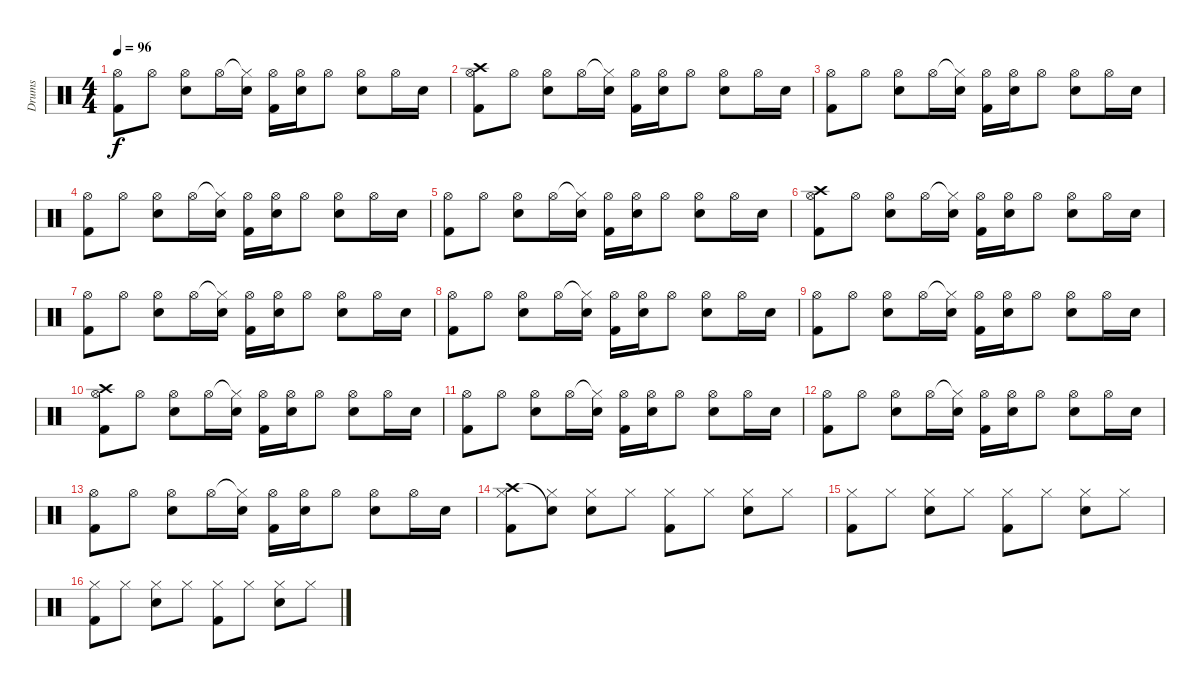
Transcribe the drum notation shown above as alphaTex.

\track ("Drums" "Drums") {instrument percussion}
\staff {score}
\articulation defaults
\ts (4 4)
\tempo 96
\clef neutral
\ks c
("Hi-Hat (open)" "Kick (hit) 2").8{dy f} "Hi-Hat (open)".8 ("Hi-Hat (open)" "Snare (hit) 2").8 "Hi-Hat (open)".16 ("Hi-Hat (closed)"{t} "Snare (hit) 2").16 ("Hi-Hat (open)" "Kick (hit) 2").16 ("Hi-Hat (open)" "Snare (hit) 2").16 "Hi-Hat (open)".8 ("Hi-Hat (open)" "Snare (hit) 2").8 "Hi-Hat (open)".16 "Snare (hit) 2".16 |
("Crash high (hit)" "Hi-Hat (open)" "Kick (hit) 2").8 "Hi-Hat (open)".8 ("Hi-Hat (open)" "Snare (hit) 2").8 "Hi-Hat (open)".16 ("Hi-Hat (closed)"{t} "Snare (hit) 2").16 ("Hi-Hat (open)" "Kick (hit) 2").16 ("Hi-Hat (open)" "Snare (hit) 2").16 "Hi-Hat (open)".8 ("Hi-Hat (open)" "Snare (hit) 2").8 "Hi-Hat (open)".16 "Snare (hit) 2".16 |
("Hi-Hat (open)" "Kick (hit) 2").8 "Hi-Hat (open)".8 ("Hi-Hat (open)" "Snare (hit) 2").8 "Hi-Hat (open)".16 ("Hi-Hat (closed)"{t} "Snare (hit) 2").16 ("Hi-Hat (open)" "Kick (hit) 2").16 ("Hi-Hat (open)" "Snare (hit) 2").16 "Hi-Hat (open)".8 ("Hi-Hat (open)" "Snare (hit) 2").8 "Hi-Hat (open)".16 "Snare (hit) 2".16 |
("Hi-Hat (open)" "Kick (hit) 2").8 "Hi-Hat (open)".8 ("Hi-Hat (open)" "Snare (hit) 2").8 "Hi-Hat (open)".16 ("Hi-Hat (closed)"{t} "Snare (hit) 2").16 ("Hi-Hat (open)" "Kick (hit) 2").16 ("Hi-Hat (open)" "Snare (hit) 2").16 "Hi-Hat (open)".8 ("Hi-Hat (open)" "Snare (hit) 2").8 "Hi-Hat (open)".16 "Snare (hit) 2".16 |
("Hi-Hat (open)" "Kick (hit) 2").8 "Hi-Hat (open)".8 ("Hi-Hat (open)" "Snare (hit) 2").8 "Hi-Hat (open)".16 ("Hi-Hat (closed)"{t} "Snare (hit) 2").16 ("Hi-Hat (open)" "Kick (hit) 2").16 ("Hi-Hat (open)" "Snare (hit) 2").16 "Hi-Hat (open)".8 ("Hi-Hat (open)" "Snare (hit) 2").8 "Hi-Hat (open)".16 "Snare (hit) 2".16 |
("Crash high (hit)" "Hi-Hat (open)" "Kick (hit) 2").8 "Hi-Hat (open)".8 ("Hi-Hat (open)" "Snare (hit) 2").8 "Hi-Hat (open)".16 ("Hi-Hat (closed)"{t} "Snare (hit) 2").16 ("Hi-Hat (open)" "Kick (hit) 2").16 ("Hi-Hat (open)" "Snare (hit) 2").16 "Hi-Hat (open)".8 ("Hi-Hat (open)" "Snare (hit) 2").8 "Hi-Hat (open)".16 "Snare (hit) 2".16 |
("Hi-Hat (open)" "Kick (hit) 2").8 "Hi-Hat (open)".8 ("Hi-Hat (open)" "Snare (hit) 2").8 "Hi-Hat (open)".16 ("Hi-Hat (closed)"{t} "Snare (hit) 2").16 ("Hi-Hat (open)" "Kick (hit) 2").16 ("Hi-Hat (open)" "Snare (hit) 2").16 "Hi-Hat (open)".8 ("Hi-Hat (open)" "Snare (hit) 2").8 "Hi-Hat (open)".16 "Snare (hit) 2".16 |
("Hi-Hat (open)" "Kick (hit) 2").8 "Hi-Hat (open)".8 ("Hi-Hat (open)" "Snare (hit) 2").8 "Hi-Hat (open)".16 ("Hi-Hat (closed)"{t} "Snare (hit) 2").16 ("Hi-Hat (open)" "Kick (hit) 2").16 ("Hi-Hat (open)" "Snare (hit) 2").16 "Hi-Hat (open)".8 ("Hi-Hat (open)" "Snare (hit) 2").8 "Hi-Hat (open)".16 "Snare (hit) 2".16 |
("Hi-Hat (open)" "Kick (hit) 2").8 "Hi-Hat (open)".8 ("Hi-Hat (open)" "Snare (hit) 2").8 "Hi-Hat (open)".16 ("Hi-Hat (closed)"{t} "Snare (hit) 2").16 ("Hi-Hat (open)" "Kick (hit) 2").16 ("Hi-Hat (open)" "Snare (hit) 2").16 "Hi-Hat (open)".8 ("Hi-Hat (open)" "Snare (hit) 2").8 "Hi-Hat (open)".16 "Snare (hit) 2".16 |
("Crash high (hit)" "Hi-Hat (open)" "Kick (hit) 2").8 "Hi-Hat (open)".8 ("Hi-Hat (open)" "Snare (hit) 2").8 "Hi-Hat (open)".16 ("Hi-Hat (closed)"{t} "Snare (hit) 2").16 ("Hi-Hat (open)" "Kick (hit) 2").16 ("Hi-Hat (open)" "Snare (hit) 2").16 "Hi-Hat (open)".8 ("Hi-Hat (open)" "Snare (hit) 2").8 "Hi-Hat (open)".16 "Snare (hit) 2".16 |
("Hi-Hat (open)" "Kick (hit) 2").8 "Hi-Hat (open)".8 ("Hi-Hat (open)" "Snare (hit) 2").8 "Hi-Hat (open)".16 ("Hi-Hat (closed)"{t} "Snare (hit) 2").16 ("Hi-Hat (open)" "Kick (hit) 2").16 ("Hi-Hat (open)" "Snare (hit) 2").16 "Hi-Hat (open)".8 ("Hi-Hat (open)" "Snare (hit) 2").8 "Hi-Hat (open)".16 "Snare (hit) 2".16 |
("Hi-Hat (open)" "Kick (hit) 2").8 "Hi-Hat (open)".8 ("Hi-Hat (open)" "Snare (hit) 2").8 "Hi-Hat (open)".16 ("Hi-Hat (closed)"{t} "Snare (hit) 2").16 ("Hi-Hat (open)" "Kick (hit) 2").16 ("Hi-Hat (open)" "Snare (hit) 2").16 "Hi-Hat (open)".8 ("Hi-Hat (open)" "Snare (hit) 2").8 "Hi-Hat (open)".16 "Snare (hit) 2".16 |
("Hi-Hat (open)" "Kick (hit) 2").8 "Hi-Hat (open)".8 ("Hi-Hat (open)" "Snare (hit) 2").8 "Hi-Hat (open)".16 ("Hi-Hat (closed)"{t} "Snare (hit) 2").16 ("Hi-Hat (open)" "Kick (hit) 2").16 ("Hi-Hat (open)" "Snare (hit) 2").16 "Hi-Hat (open)".8 ("Hi-Hat (open)" "Snare (hit) 2").8 "Hi-Hat (open)".16 "Snare (hit) 2".16 |
("Crash high (hit)" "Hi-Hat (closed)" "Kick (hit) 2").8 ("Snare (hit)"{t} "Hi-Hat (closed)").8 ("Hi-Hat (closed)" "Snare (hit) 2").8 "Hi-Hat (closed)".8 ("Hi-Hat (closed)" "Kick (hit) 2").8 "Hi-Hat (closed)".8 ("Hi-Hat (closed)" "Snare (hit) 2").8 "Hi-Hat (closed)".8 |
("Hi-Hat (closed)" "Kick (hit) 2").8 "Hi-Hat (closed)".8 ("Hi-Hat (closed)" "Snare (hit) 2").8 "Hi-Hat (closed)".8 ("Hi-Hat (closed)" "Kick (hit) 2").8 "Hi-Hat (closed)".8 ("Hi-Hat (closed)" "Snare (hit) 2").8 "Hi-Hat (closed)".8 |
("Hi-Hat (closed)" "Kick (hit) 2").8 "Hi-Hat (closed)".8 ("Hi-Hat (closed)" "Snare (hit) 2").8 "Hi-Hat (closed)".8 ("Hi-Hat (closed)" "Kick (hit) 2").8 "Hi-Hat (closed)".8 ("Hi-Hat (closed)" "Snare (hit) 2").8 "Hi-Hat (closed)".8
